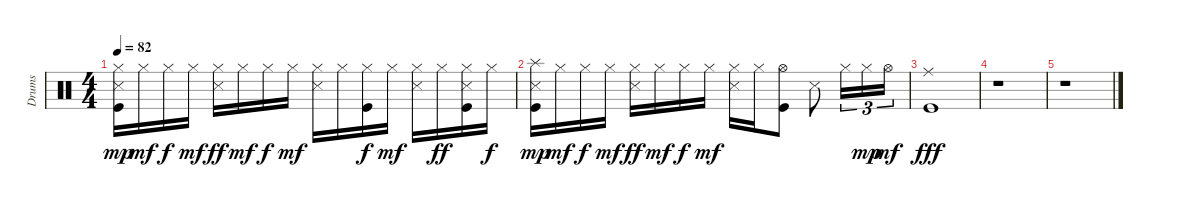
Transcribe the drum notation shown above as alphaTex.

\track ("Drums" "Drums") {instrument percussion}
\staff {score}
\articulation defaults
\ts (4 4)
\tempo 82
\clef neutral
\ks c
("Kick (hit)" "Snare (side stick) 3" "Hi-Hat (closed)").16{dy mp} "Hi-Hat (closed)".16{dy mf} "Hi-Hat (closed)".16{dy f} "Hi-Hat (closed)".16{dy mf} ("Snare (side stick) 3" "Hi-Hat (closed)").16{dy ff} "Hi-Hat (closed)".16{dy mf} "Hi-Hat (closed)".16{dy f} "Hi-Hat (closed)".16{dy mf} ("Snare (side stick) 3" "Hi-Hat (closed)").16 "Hi-Hat (closed)".16 ("Kick (hit)" "Hi-Hat (closed)").16{dy f} "Hi-Hat (closed)".16{dy mf} ("Snare (side stick) 3" "Hi-Hat (closed)").16 "Hi-Hat (closed)".16{dy ff} ("Kick (hit)" "Snare (side stick) 3" "Hi-Hat (closed)").16 "Hi-Hat (closed)".16{dy f} |
("Kick (hit)" "Snare (side stick) 3" "Splash (hit)").16{dy mp} "Hi-Hat (closed)".16{dy mf} "Hi-Hat (closed)".16{dy f} "Hi-Hat (closed)".16{dy mf} ("Snare (side stick) 3" "Hi-Hat (closed)").16{dy ff} "Hi-Hat (closed)".16{dy mf} "Hi-Hat (closed)".16{dy f} "Hi-Hat (closed)".16{dy mf} ("Snare (side stick) 3" "Hi-Hat (closed)").16 "Hi-Hat (closed)".16 ("Kick (hit)" "Hi-Hat (open)").8 "Snare (side stick) 3".8 "Hi-Hat (closed)".16{tu (3 2)} "Hi-Hat (closed)".16{tu (3 2) dy mp} "Hi-Hat (open)".16{tu (3 2) dy mf} |
("Kick (hit)" "Ride (middle)").1{dy fff} |
r.1 |
r.1
